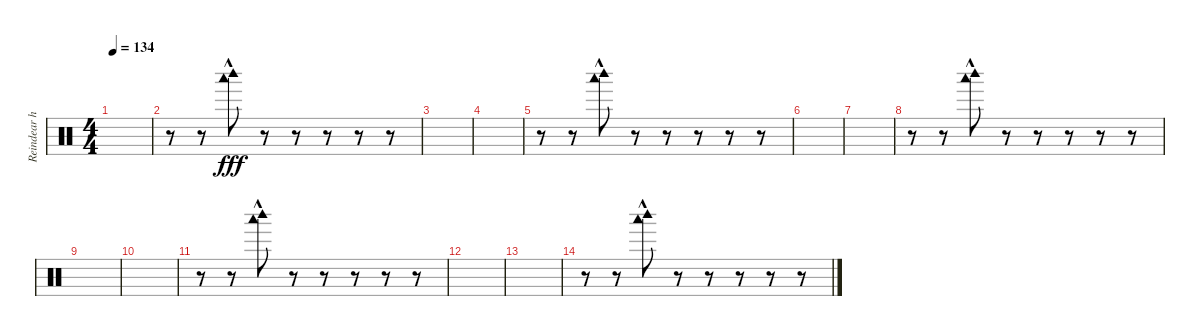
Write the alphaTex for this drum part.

\track ("Reindear horn" "Reindear h") {instrument percussion}
\staff {score}
\articulation defaults
\ts (4 4)
\tempo 134
\clef neutral
\ks c
|
r.8 r.8 ("Woodblock high (hit)" "Woodblock low (hit)"{hac}).8{dy fff} r.8 r.8 r.8 r.8 r.8 |
|
|
r.8 r.8 ("Woodblock high (hit)" "Woodblock low (hit)"{hac}).8 r.8 r.8 r.8 r.8 r.8 |
|
|
r.8 r.8 ("Woodblock high (hit)" "Woodblock low (hit)"{hac}).8 r.8 r.8 r.8 r.8 r.8 |
|
|
r.8 r.8 ("Woodblock high (hit)" "Woodblock low (hit)"{hac}).8 r.8 r.8 r.8 r.8 r.8 |
|
|
r.8 r.8 ("Woodblock high (hit)" "Woodblock low (hit)"{hac}).8 r.8 r.8 r.8 r.8 r.8
